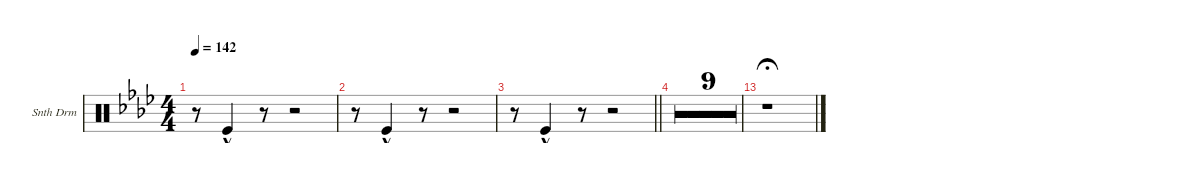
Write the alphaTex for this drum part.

\defaultSystemsLayout 4
\hideDynamics
\bracketExtendMode groupsimilarinstruments
\firstSystemTrackNameOrientation horizontal
\otherSystemsTrackNameOrientation horizontal
\track ("Synth Drum" "Snth Drm") {multiBarRest instrument percussion}
\staff {score}
\articulation defaults
\ts (4 4)
\tempo 142
\clef neutral
\ks ab
r.8{dy f} "Kick (hit)"{hac}.4 r.8 r.2 |
r.8 "Kick (hit)"{hac}.4 r.8 r.2 |
\barLineRight lightlight
r.8 "Kick (hit)"{hac}.4 r.8 r.2 |
r.1 |
r.1 |
r.1 |
r.1 |
r.1 |
r.1 |
r.1 |
|
r.1 |
r.1{fermata (medium 0.5)}
